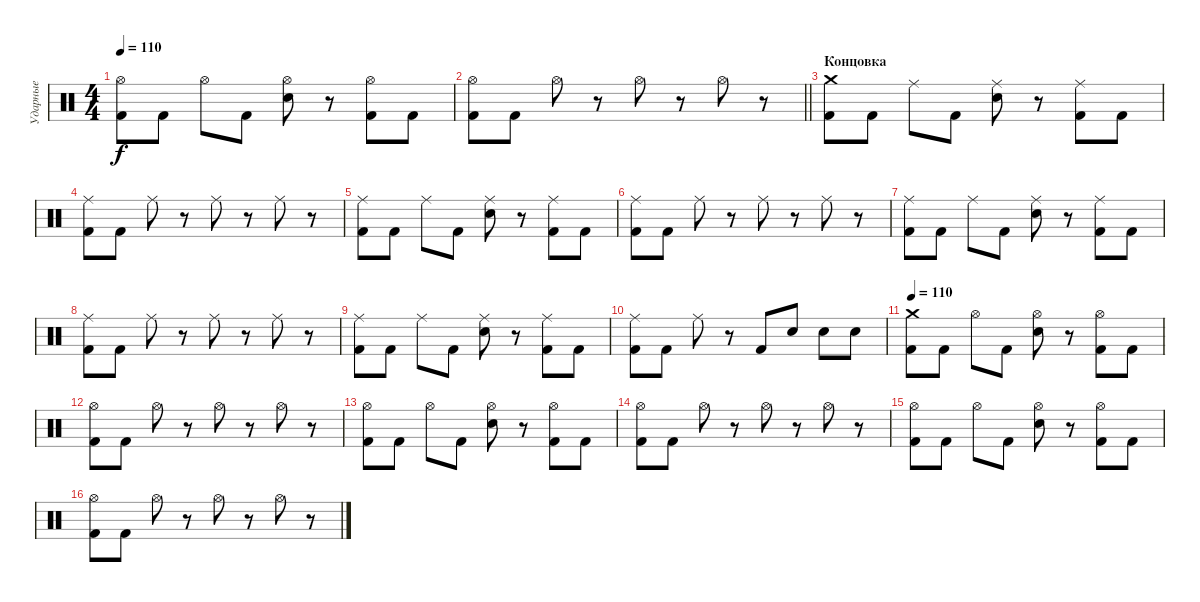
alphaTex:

\track ("Ударные" "Ударные") {instrument percussion}
\staff {score}
\articulation defaults
\ts (4 4)
\tempo 110
\clef neutral
\ks c
("Hi-Hat (open)" "Kick (hit) 2").8{dy f} "Kick (hit) 2".8 "Hi-Hat (open)".8 "Kick (hit) 2".8 ("Hi-Hat (open)" "Electric Snare (hit)").8 r.8 ("Hi-Hat (open)" "Kick (hit) 2").8 "Kick (hit) 2".8 |
\barLineRight lightlight
("Hi-Hat (open)" "Kick (hit) 2").8 "Kick (hit) 2".8 "Hi-Hat (open)".8 r.8 "Hi-Hat (open)".8 r.8 "Hi-Hat (open)".8 r.8 |
\section ("" "Концовка")
("Crash medium (hit)" "Kick (hit) 2").8 "Kick (hit) 2".8 "Ride (middle)".8 "Kick (hit) 2".8 ("Ride (middle)" "Electric Snare (hit)").8 r.8 ("Ride (middle)" "Kick (hit) 2").8 "Kick (hit) 2".8 |
("Ride (middle)" "Kick (hit) 2").8 "Kick (hit) 2".8 "Ride (middle)".8 r.8 "Ride (middle)".8 r.8 "Ride (middle)".8 r.8 |
("Ride (middle)" "Kick (hit) 2").8 "Kick (hit) 2".8 "Ride (middle)".8 "Kick (hit) 2".8 ("Ride (middle)" "Electric Snare (hit)").8 r.8 ("Ride (middle)" "Kick (hit) 2").8 "Kick (hit) 2".8 |
("Ride (middle)" "Kick (hit) 2").8 "Kick (hit) 2".8 "Ride (middle)".8 r.8 "Ride (middle)".8 r.8 "Ride (middle)".8 r.8 |
("Ride (middle)" "Kick (hit) 2").8 "Kick (hit) 2".8 "Ride (middle)".8 "Kick (hit) 2".8 ("Ride (middle)" "Electric Snare (hit)").8 r.8 ("Ride (middle)" "Kick (hit) 2").8 "Kick (hit) 2".8 |
("Ride (middle)" "Kick (hit) 2").8 "Kick (hit) 2".8 "Ride (middle)".8 r.8 "Ride (middle)".8 r.8 "Ride (middle)".8 r.8 |
("Ride (middle)" "Kick (hit) 2").8 "Kick (hit) 2".8 "Ride (middle)".8 "Kick (hit) 2".8 ("Ride (middle)" "Electric Snare (hit)").8 r.8 ("Ride (middle)" "Kick (hit) 2").8 "Kick (hit) 2".8 |
("Ride (middle)" "Kick (hit) 2").8 "Kick (hit) 2".8 "Ride (middle)".8 r.8 "Kick (hit) 2".8 "Electric Snare (hit)".8 "Electric Snare (hit)".8 "Electric Snare (hit)".8 |
\tempo 110
("Crash medium (hit)" "Kick (hit) 2").8 "Kick (hit) 2".8 "Hi-Hat (open)".8 "Kick (hit) 2".8 ("Hi-Hat (open)" "Electric Snare (hit)").8 r.8 ("Hi-Hat (open)" "Kick (hit) 2").8 "Kick (hit) 2".8 |
("Hi-Hat (open)" "Kick (hit) 2").8 "Kick (hit) 2".8 "Hi-Hat (open)".8 r.8 "Hi-Hat (open)".8 r.8 "Hi-Hat (open)".8 r.8 |
("Hi-Hat (open)" "Kick (hit) 2").8 "Kick (hit) 2".8 "Hi-Hat (open)".8 "Kick (hit) 2".8 ("Hi-Hat (open)" "Electric Snare (hit)").8 r.8 ("Hi-Hat (open)" "Kick (hit) 2").8 "Kick (hit) 2".8 |
("Hi-Hat (open)" "Kick (hit) 2").8 "Kick (hit) 2".8 "Hi-Hat (open)".8 r.8 "Hi-Hat (open)".8 r.8 "Hi-Hat (open)".8 r.8 |
("Hi-Hat (open)" "Kick (hit) 2").8 "Kick (hit) 2".8 "Hi-Hat (open)".8 "Kick (hit) 2".8 ("Hi-Hat (open)" "Electric Snare (hit)").8 r.8 ("Hi-Hat (open)" "Kick (hit) 2").8 "Kick (hit) 2".8 |
("Hi-Hat (open)" "Kick (hit) 2").8 "Kick (hit) 2".8 "Hi-Hat (open)".8 r.8 "Hi-Hat (open)".8 r.8 "Hi-Hat (open)".8 r.8
